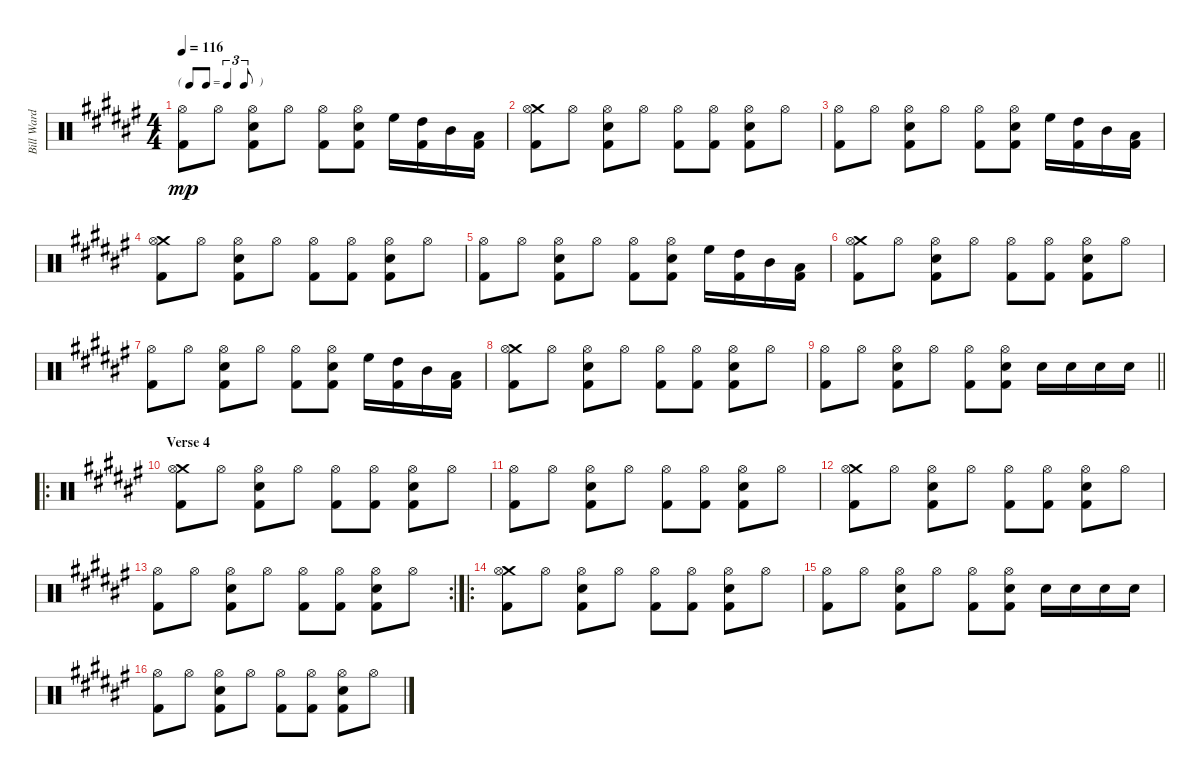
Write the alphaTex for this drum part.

\track ("Bill Ward" "Bill Ward") {instrument percussion}
\staff {score}
\articulation defaults
\ts (4 4)
\tf triplet8th
\tempo 116
\clef neutral
\ks f#
("Hi-Hat (open)" "Kick (hit) 2").8{dy mp} "Hi-Hat (open)".8 ("Hi-Hat (open)" "Snare (hit) 2" "Kick (hit) 2").8 "Hi-Hat (open)".8 ("Hi-Hat (open)" "Kick (hit) 2").8 ("Hi-Hat (open)" "Snare (hit) 2" "Kick (hit) 2").8 "High Floor Tom (hit)".16 ("High Tom (hit)" "Kick (hit) 2").16 "Mid Tom (hit)".16 ("Low Tom (hit)" "Kick (hit) 2").16 |
("Crash medium (hit)" "Hi-Hat (open)" "Kick (hit) 2").8 "Hi-Hat (open)".8 ("Hi-Hat (open)" "Snare (hit) 2" "Kick (hit) 2").8 "Hi-Hat (open)".8 ("Hi-Hat (open)" "Kick (hit) 2").8 ("Hi-Hat (open)" "Kick (hit) 2").8 ("Hi-Hat (open)" "Snare (hit) 2" "Kick (hit) 2").8 "Hi-Hat (open)".8 |
("Hi-Hat (open)" "Kick (hit) 2").8 "Hi-Hat (open)".8 ("Hi-Hat (open)" "Snare (hit) 2" "Kick (hit) 2").8 "Hi-Hat (open)".8 ("Hi-Hat (open)" "Kick (hit) 2").8 ("Hi-Hat (open)" "Snare (hit) 2" "Kick (hit) 2").8 "High Floor Tom (hit)".16 ("High Tom (hit)" "Kick (hit) 2").16 "Mid Tom (hit)".16 ("Low Tom (hit)" "Kick (hit) 2").16 |
("Crash medium (hit)" "Hi-Hat (open)" "Kick (hit) 2").8 "Hi-Hat (open)".8 ("Hi-Hat (open)" "Snare (hit) 2" "Kick (hit) 2").8 "Hi-Hat (open)".8 ("Hi-Hat (open)" "Kick (hit) 2").8 ("Hi-Hat (open)" "Kick (hit) 2").8 ("Hi-Hat (open)" "Snare (hit) 2" "Kick (hit) 2").8 "Hi-Hat (open)".8 |
("Hi-Hat (open)" "Kick (hit) 2").8 "Hi-Hat (open)".8 ("Hi-Hat (open)" "Snare (hit) 2" "Kick (hit) 2").8 "Hi-Hat (open)".8 ("Hi-Hat (open)" "Kick (hit) 2").8 ("Hi-Hat (open)" "Snare (hit) 2" "Kick (hit) 2").8 "High Floor Tom (hit)".16 ("High Tom (hit)" "Kick (hit) 2").16 "Mid Tom (hit)".16 ("Low Tom (hit)" "Kick (hit) 2").16 |
("Crash medium (hit)" "Hi-Hat (open)" "Kick (hit) 2").8 "Hi-Hat (open)".8 ("Hi-Hat (open)" "Snare (hit) 2" "Kick (hit) 2").8 "Hi-Hat (open)".8 ("Hi-Hat (open)" "Kick (hit) 2").8 ("Hi-Hat (open)" "Kick (hit) 2").8 ("Hi-Hat (open)" "Snare (hit) 2" "Kick (hit) 2").8 "Hi-Hat (open)".8 |
("Hi-Hat (open)" "Kick (hit) 2").8 "Hi-Hat (open)".8 ("Hi-Hat (open)" "Snare (hit) 2" "Kick (hit) 2").8 "Hi-Hat (open)".8 ("Hi-Hat (open)" "Kick (hit) 2").8 ("Hi-Hat (open)" "Snare (hit) 2" "Kick (hit) 2").8 "High Floor Tom (hit)".16 ("High Tom (hit)" "Kick (hit) 2").16 "Mid Tom (hit)".16 ("Low Tom (hit)" "Kick (hit) 2").16 |
("Crash medium (hit)" "Hi-Hat (open)" "Kick (hit) 2").8 "Hi-Hat (open)".8 ("Hi-Hat (open)" "Snare (hit) 2" "Kick (hit) 2").8 "Hi-Hat (open)".8 ("Hi-Hat (open)" "Kick (hit) 2").8 ("Hi-Hat (open)" "Kick (hit) 2").8 ("Hi-Hat (open)" "Snare (hit) 2" "Kick (hit) 2").8 "Hi-Hat (open)".8 |
\barLineRight lightlight
("Hi-Hat (open)" "Kick (hit) 2").8 "Hi-Hat (open)".8 ("Hi-Hat (open)" "Snare (hit) 2" "Kick (hit) 2").8 "Hi-Hat (open)".8 ("Hi-Hat (open)" "Kick (hit) 2").8 ("Hi-Hat (open)" "Snare (hit) 2" "Kick (hit) 2").8 "Snare (hit) 2".16 "Snare (hit) 2".16 "Snare (hit) 2".16 "Snare (hit) 2".16 |
\ro
\section ("" "Verse 4")
("Crash medium (hit)" "Hi-Hat (open)" "Kick (hit) 2").8 "Hi-Hat (open)".8 ("Hi-Hat (open)" "Snare (hit) 2" "Kick (hit) 2").8 "Hi-Hat (open)".8 ("Hi-Hat (open)" "Kick (hit) 2").8 ("Hi-Hat (open)" "Kick (hit) 2").8 ("Hi-Hat (open)" "Snare (hit) 2" "Kick (hit) 2").8 "Hi-Hat (open)".8 |
("Hi-Hat (open)" "Kick (hit) 2").8 "Hi-Hat (open)".8 ("Hi-Hat (open)" "Snare (hit) 2" "Kick (hit) 2").8 "Hi-Hat (open)".8 ("Hi-Hat (open)" "Kick (hit) 2").8 ("Hi-Hat (open)" "Kick (hit) 2").8 ("Hi-Hat (open)" "Snare (hit) 2" "Kick (hit) 2").8 "Hi-Hat (open)".8 |
("Crash medium (hit)" "Hi-Hat (open)" "Kick (hit) 2").8 "Hi-Hat (open)".8 ("Hi-Hat (open)" "Snare (hit) 2" "Kick (hit) 2").8 "Hi-Hat (open)".8 ("Hi-Hat (open)" "Kick (hit) 2").8 ("Hi-Hat (open)" "Kick (hit) 2").8 ("Hi-Hat (open)" "Snare (hit) 2" "Kick (hit) 2").8 "Hi-Hat (open)".8 |
\rc 2
("Hi-Hat (open)" "Kick (hit) 2").8 "Hi-Hat (open)".8 ("Hi-Hat (open)" "Snare (hit) 2" "Kick (hit) 2").8 "Hi-Hat (open)".8 ("Hi-Hat (open)" "Kick (hit) 2").8 ("Hi-Hat (open)" "Kick (hit) 2").8 ("Hi-Hat (open)" "Snare (hit) 2" "Kick (hit) 2").8 "Hi-Hat (open)".8 |
\ro
("Crash medium (hit)" "Hi-Hat (open)" "Kick (hit) 2").8 "Hi-Hat (open)".8 ("Hi-Hat (open)" "Snare (hit) 2" "Kick (hit) 2").8 "Hi-Hat (open)".8 ("Hi-Hat (open)" "Kick (hit) 2").8 ("Hi-Hat (open)" "Kick (hit) 2").8 ("Hi-Hat (open)" "Snare (hit) 2" "Kick (hit) 2").8 "Hi-Hat (open)".8 |
("Hi-Hat (open)" "Kick (hit) 2").8 "Hi-Hat (open)".8 ("Hi-Hat (open)" "Snare (hit) 2" "Kick (hit) 2").8 "Hi-Hat (open)".8 ("Hi-Hat (open)" "Kick (hit) 2").8 ("Hi-Hat (open)" "Snare (hit) 2" "Kick (hit) 2").8 "Snare (hit) 2".16 "Snare (hit) 2".16 "Snare (hit) 2".16 "Snare (hit) 2".16 |
("Hi-Hat (open)" "Kick (hit) 2").8 "Hi-Hat (open)".8 ("Hi-Hat (open)" "Snare (hit) 2" "Kick (hit) 2").8 "Hi-Hat (open)".8 ("Hi-Hat (open)" "Kick (hit) 2").8 ("Hi-Hat (open)" "Kick (hit) 2").8 ("Hi-Hat (open)" "Snare (hit) 2" "Kick (hit) 2").8 "Hi-Hat (open)".8
